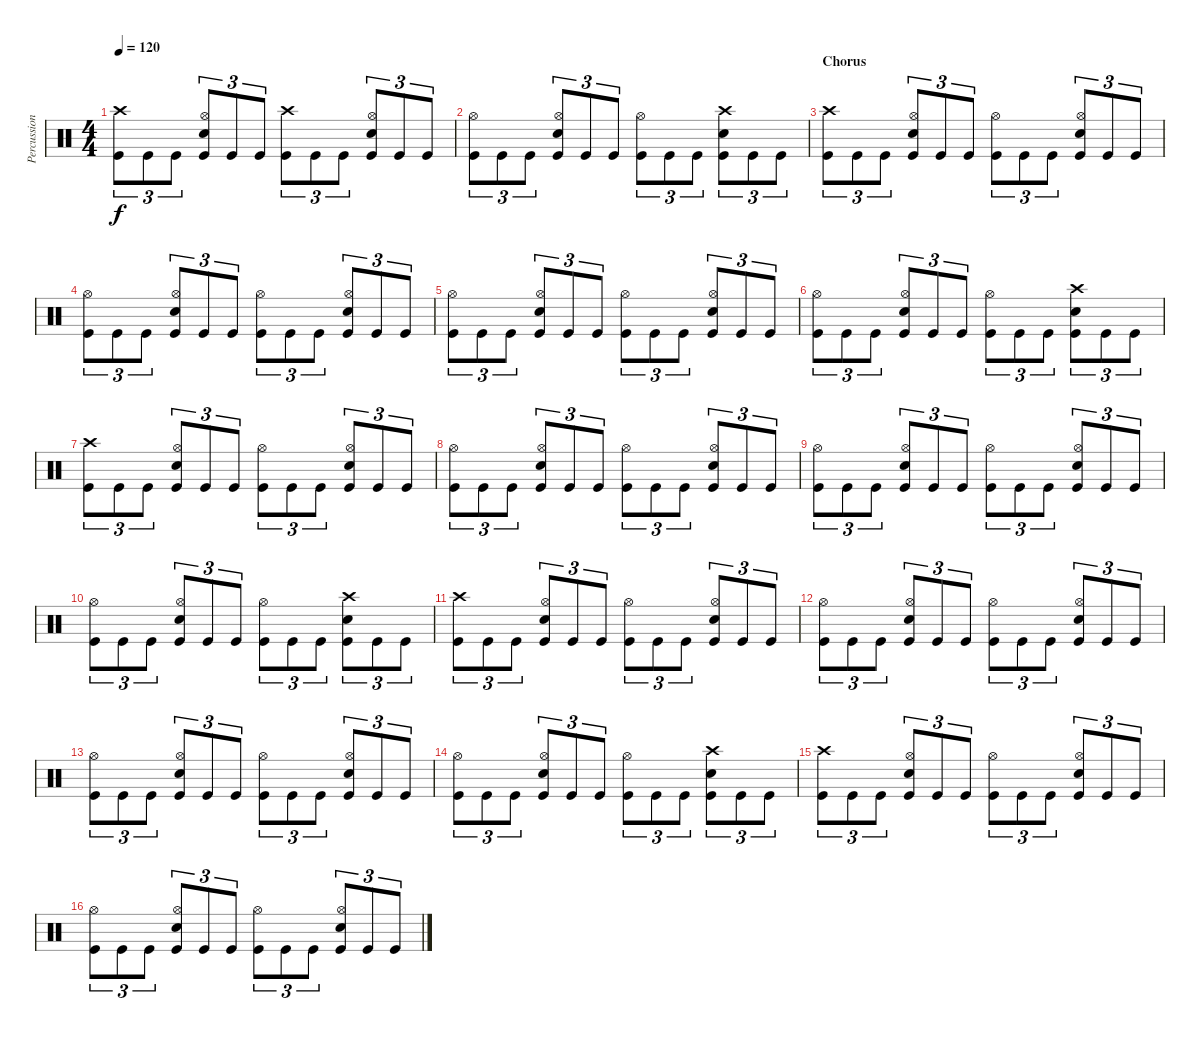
\track ("Percussion" "Percussion") {instrument percussion}
\staff {score}
\articulation defaults
\ts (4 4)
\tempo 120
\clef neutral
\ks c
("Crash high (hit)" "Kick (hit)").8{tu (3 2) dy f} "Kick (hit)".8{tu (3 2)} "Kick (hit)".8{tu (3 2)} ("Hi-Hat (open)" "Snare (hit) 2" "Kick (hit)").8{tu (3 2)} "Kick (hit)".8{tu (3 2)} "Kick (hit)".8{tu (3 2)} ("Crash high (hit)" "Kick (hit)").8{tu (3 2)} "Kick (hit)".8{tu (3 2)} "Kick (hit)".8{tu (3 2)} ("Hi-Hat (open)" "Snare (hit) 2" "Kick (hit)").8{tu (3 2)} "Kick (hit)".8{tu (3 2)} "Kick (hit)".8{tu (3 2)} |
("Hi-Hat (open)" "Kick (hit)").8{tu (3 2)} "Kick (hit)".8{tu (3 2)} "Kick (hit)".8{tu (3 2)} ("Hi-Hat (open)" "Snare (hit) 2" "Kick (hit)").8{tu (3 2)} "Kick (hit)".8{tu (3 2)} "Kick (hit)".8{tu (3 2)} ("Hi-Hat (open)" "Kick (hit)").8{tu (3 2)} "Kick (hit)".8{tu (3 2)} "Kick (hit)".8{tu (3 2)} ("Crash high (hit)" "Snare (hit) 2" "Kick (hit)").8{tu (3 2)} "Kick (hit)".8{tu (3 2)} "Kick (hit)".8{tu (3 2)} |
\section ("" "Chorus")
("Crash high (hit)" "Kick (hit)").8{tu (3 2)} "Kick (hit)".8{tu (3 2)} "Kick (hit)".8{tu (3 2)} ("Hi-Hat (open)" "Snare (hit) 2" "Kick (hit)").8{tu (3 2)} "Kick (hit)".8{tu (3 2)} "Kick (hit)".8{tu (3 2)} ("Hi-Hat (open)" "Kick (hit)").8{tu (3 2)} "Kick (hit)".8{tu (3 2)} "Kick (hit)".8{tu (3 2)} ("Hi-Hat (open)" "Snare (hit) 2" "Kick (hit)").8{tu (3 2)} "Kick (hit)".8{tu (3 2)} "Kick (hit)".8{tu (3 2)} |
("Hi-Hat (open)" "Kick (hit)").8{tu (3 2)} "Kick (hit)".8{tu (3 2)} "Kick (hit)".8{tu (3 2)} ("Hi-Hat (open)" "Snare (hit) 2" "Kick (hit)").8{tu (3 2)} "Kick (hit)".8{tu (3 2)} "Kick (hit)".8{tu (3 2)} ("Hi-Hat (open)" "Kick (hit)").8{tu (3 2)} "Kick (hit)".8{tu (3 2)} "Kick (hit)".8{tu (3 2)} ("Hi-Hat (open)" "Snare (hit) 2" "Kick (hit)").8{tu (3 2)} "Kick (hit)".8{tu (3 2)} "Kick (hit)".8{tu (3 2)} |
("Hi-Hat (open)" "Kick (hit)").8{tu (3 2)} "Kick (hit)".8{tu (3 2)} "Kick (hit)".8{tu (3 2)} ("Hi-Hat (open)" "Snare (hit) 2" "Kick (hit)").8{tu (3 2)} "Kick (hit)".8{tu (3 2)} "Kick (hit)".8{tu (3 2)} ("Hi-Hat (open)" "Kick (hit)").8{tu (3 2)} "Kick (hit)".8{tu (3 2)} "Kick (hit)".8{tu (3 2)} ("Hi-Hat (open)" "Snare (hit) 2" "Kick (hit)").8{tu (3 2)} "Kick (hit)".8{tu (3 2)} "Kick (hit)".8{tu (3 2)} |
("Hi-Hat (open)" "Kick (hit)").8{tu (3 2)} "Kick (hit)".8{tu (3 2)} "Kick (hit)".8{tu (3 2)} ("Hi-Hat (open)" "Snare (hit) 2" "Kick (hit)").8{tu (3 2)} "Kick (hit)".8{tu (3 2)} "Kick (hit)".8{tu (3 2)} ("Hi-Hat (open)" "Kick (hit)").8{tu (3 2)} "Kick (hit)".8{tu (3 2)} "Kick (hit)".8{tu (3 2)} ("Crash high (hit)" "Snare (hit) 2" "Kick (hit)").8{tu (3 2)} "Kick (hit)".8{tu (3 2)} "Kick (hit)".8{tu (3 2)} |
("Crash high (hit)" "Kick (hit)").8{tu (3 2)} "Kick (hit)".8{tu (3 2)} "Kick (hit)".8{tu (3 2)} ("Hi-Hat (open)" "Snare (hit) 2" "Kick (hit)").8{tu (3 2)} "Kick (hit)".8{tu (3 2)} "Kick (hit)".8{tu (3 2)} ("Hi-Hat (open)" "Kick (hit)").8{tu (3 2)} "Kick (hit)".8{tu (3 2)} "Kick (hit)".8{tu (3 2)} ("Hi-Hat (open)" "Snare (hit) 2" "Kick (hit)").8{tu (3 2)} "Kick (hit)".8{tu (3 2)} "Kick (hit)".8{tu (3 2)} |
("Hi-Hat (open)" "Kick (hit)").8{tu (3 2)} "Kick (hit)".8{tu (3 2)} "Kick (hit)".8{tu (3 2)} ("Hi-Hat (open)" "Snare (hit) 2" "Kick (hit)").8{tu (3 2)} "Kick (hit)".8{tu (3 2)} "Kick (hit)".8{tu (3 2)} ("Hi-Hat (open)" "Kick (hit)").8{tu (3 2)} "Kick (hit)".8{tu (3 2)} "Kick (hit)".8{tu (3 2)} ("Hi-Hat (open)" "Snare (hit) 2" "Kick (hit)").8{tu (3 2)} "Kick (hit)".8{tu (3 2)} "Kick (hit)".8{tu (3 2)} |
("Hi-Hat (open)" "Kick (hit)").8{tu (3 2)} "Kick (hit)".8{tu (3 2)} "Kick (hit)".8{tu (3 2)} ("Hi-Hat (open)" "Snare (hit) 2" "Kick (hit)").8{tu (3 2)} "Kick (hit)".8{tu (3 2)} "Kick (hit)".8{tu (3 2)} ("Hi-Hat (open)" "Kick (hit)").8{tu (3 2)} "Kick (hit)".8{tu (3 2)} "Kick (hit)".8{tu (3 2)} ("Hi-Hat (open)" "Snare (hit) 2" "Kick (hit)").8{tu (3 2)} "Kick (hit)".8{tu (3 2)} "Kick (hit)".8{tu (3 2)} |
("Hi-Hat (open)" "Kick (hit)").8{tu (3 2)} "Kick (hit)".8{tu (3 2)} "Kick (hit)".8{tu (3 2)} ("Hi-Hat (open)" "Snare (hit) 2" "Kick (hit)").8{tu (3 2)} "Kick (hit)".8{tu (3 2)} "Kick (hit)".8{tu (3 2)} ("Hi-Hat (open)" "Kick (hit)").8{tu (3 2)} "Kick (hit)".8{tu (3 2)} "Kick (hit)".8{tu (3 2)} ("Crash high (hit)" "Snare (hit) 2" "Kick (hit)").8{tu (3 2)} "Kick (hit)".8{tu (3 2)} "Kick (hit)".8{tu (3 2)} |
("Crash high (hit)" "Kick (hit)").8{tu (3 2)} "Kick (hit)".8{tu (3 2)} "Kick (hit)".8{tu (3 2)} ("Hi-Hat (open)" "Snare (hit) 2" "Kick (hit)").8{tu (3 2)} "Kick (hit)".8{tu (3 2)} "Kick (hit)".8{tu (3 2)} ("Hi-Hat (open)" "Kick (hit)").8{tu (3 2)} "Kick (hit)".8{tu (3 2)} "Kick (hit)".8{tu (3 2)} ("Hi-Hat (open)" "Snare (hit) 2" "Kick (hit)").8{tu (3 2)} "Kick (hit)".8{tu (3 2)} "Kick (hit)".8{tu (3 2)} |
("Hi-Hat (open)" "Kick (hit)").8{tu (3 2)} "Kick (hit)".8{tu (3 2)} "Kick (hit)".8{tu (3 2)} ("Hi-Hat (open)" "Snare (hit) 2" "Kick (hit)").8{tu (3 2)} "Kick (hit)".8{tu (3 2)} "Kick (hit)".8{tu (3 2)} ("Hi-Hat (open)" "Kick (hit)").8{tu (3 2)} "Kick (hit)".8{tu (3 2)} "Kick (hit)".8{tu (3 2)} ("Hi-Hat (open)" "Snare (hit) 2" "Kick (hit)").8{tu (3 2)} "Kick (hit)".8{tu (3 2)} "Kick (hit)".8{tu (3 2)} |
("Hi-Hat (open)" "Kick (hit)").8{tu (3 2)} "Kick (hit)".8{tu (3 2)} "Kick (hit)".8{tu (3 2)} ("Hi-Hat (open)" "Snare (hit) 2" "Kick (hit)").8{tu (3 2)} "Kick (hit)".8{tu (3 2)} "Kick (hit)".8{tu (3 2)} ("Hi-Hat (open)" "Kick (hit)").8{tu (3 2)} "Kick (hit)".8{tu (3 2)} "Kick (hit)".8{tu (3 2)} ("Hi-Hat (open)" "Snare (hit) 2" "Kick (hit)").8{tu (3 2)} "Kick (hit)".8{tu (3 2)} "Kick (hit)".8{tu (3 2)} |
("Hi-Hat (open)" "Kick (hit)").8{tu (3 2)} "Kick (hit)".8{tu (3 2)} "Kick (hit)".8{tu (3 2)} ("Hi-Hat (open)" "Snare (hit) 2" "Kick (hit)").8{tu (3 2)} "Kick (hit)".8{tu (3 2)} "Kick (hit)".8{tu (3 2)} ("Hi-Hat (open)" "Kick (hit)").8{tu (3 2)} "Kick (hit)".8{tu (3 2)} "Kick (hit)".8{tu (3 2)} ("Crash high (hit)" "Snare (hit) 2" "Kick (hit)").8{tu (3 2)} "Kick (hit)".8{tu (3 2)} "Kick (hit)".8{tu (3 2)} |
("Crash high (hit)" "Kick (hit)").8{tu (3 2)} "Kick (hit)".8{tu (3 2)} "Kick (hit)".8{tu (3 2)} ("Hi-Hat (open)" "Snare (hit) 2" "Kick (hit)").8{tu (3 2)} "Kick (hit)".8{tu (3 2)} "Kick (hit)".8{tu (3 2)} ("Hi-Hat (open)" "Kick (hit)").8{tu (3 2)} "Kick (hit)".8{tu (3 2)} "Kick (hit)".8{tu (3 2)} ("Hi-Hat (open)" "Snare (hit) 2" "Kick (hit)").8{tu (3 2)} "Kick (hit)".8{tu (3 2)} "Kick (hit)".8{tu (3 2)} |
("Hi-Hat (open)" "Kick (hit)").8{tu (3 2)} "Kick (hit)".8{tu (3 2)} "Kick (hit)".8{tu (3 2)} ("Hi-Hat (open)" "Snare (hit) 2" "Kick (hit)").8{tu (3 2)} "Kick (hit)".8{tu (3 2)} "Kick (hit)".8{tu (3 2)} ("Hi-Hat (open)" "Kick (hit)").8{tu (3 2)} "Kick (hit)".8{tu (3 2)} "Kick (hit)".8{tu (3 2)} ("Hi-Hat (open)" "Snare (hit) 2" "Kick (hit)").8{tu (3 2)} "Kick (hit)".8{tu (3 2)} "Kick (hit)".8{tu (3 2)}
